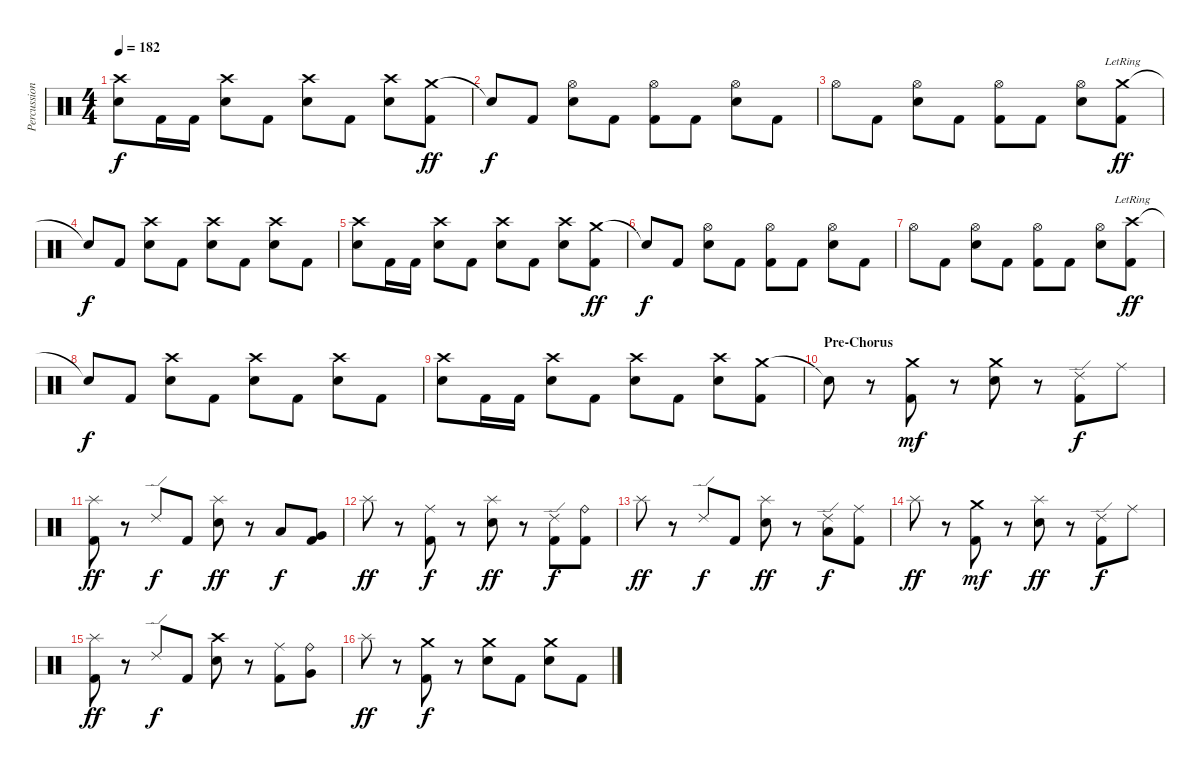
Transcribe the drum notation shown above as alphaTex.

\track ("Percussions" "Percussion") {instrument percussion}
\staff {score}
\articulation defaults
\ts (4 4)
\tempo 182
\clef neutral
\ks c
("Crash high (hit)" "Electric Snare (hit)").8{dy f} "Kick (hit) 2".16 "Kick (hit) 2".16 ("Crash high (hit)" "Electric Snare (hit)").8 "Kick (hit) 2".8 ("Crash high (hit)" "Electric Snare (hit)").8 "Kick (hit) 2".8 ("Crash high (hit)" "Electric Snare (hit)").8 ("Crash medium (hit)" "Kick (hit) 2").8{dy ff} |
"Snare (hit)"{t}.8{dy f} "Kick (hit) 2".8 ("Hi-Hat (open)" "Electric Snare (hit)").8 "Kick (hit) 2".8 ("Hi-Hat (open)" "Kick (hit) 2").8 "Kick (hit) 2".8 ("Hi-Hat (open)" "Electric Snare (hit)").8 "Kick (hit) 2".8 |
"Hi-Hat (open)".8 "Kick (hit) 2".8 ("Hi-Hat (open)" "Electric Snare (hit)").8 "Kick (hit) 2".8 ("Hi-Hat (open)" "Kick (hit) 2").8 "Kick (hit) 2".8 ("Hi-Hat (open)" "Electric Snare (hit)").8 ("Crash medium (hit)"{lr} "Kick (hit) 2").8{dy ff} |
"Snare (hit)"{t}.8{dy f} "Kick (hit) 2".8 ("Crash high (hit)" "Electric Snare (hit)").8 "Kick (hit) 2".8 ("Crash high (hit)" "Electric Snare (hit)").8 "Kick (hit) 2".8 ("Crash high (hit)" "Electric Snare (hit)").8 "Kick (hit) 2".8 |
("Crash high (hit)" "Electric Snare (hit)").8 "Kick (hit) 2".16 "Kick (hit) 2".16 ("Crash high (hit)" "Electric Snare (hit)").8 "Kick (hit) 2".8 ("Crash high (hit)" "Electric Snare (hit)").8 "Kick (hit) 2".8 ("Crash high (hit)" "Electric Snare (hit)").8 ("Crash medium (hit)" "Kick (hit) 2").8{dy ff} |
"Snare (hit)"{t}.8{dy f} "Kick (hit) 2".8 ("Hi-Hat (open)" "Electric Snare (hit)").8 "Kick (hit) 2".8 ("Hi-Hat (open)" "Kick (hit) 2").8 "Kick (hit) 2".8 ("Hi-Hat (open)" "Electric Snare (hit)").8 "Kick (hit) 2".8 |
"Hi-Hat (open)".8 "Kick (hit) 2".8 ("Hi-Hat (open)" "Electric Snare (hit)").8 "Kick (hit) 2".8 ("Hi-Hat (open)" "Kick (hit) 2").8 "Kick (hit) 2".8 ("Hi-Hat (open)" "Electric Snare (hit)").8 ("Crash high (hit)"{lr} "Kick (hit) 2").8{dy ff} |
"Snare (hit)"{t}.8{dy f} "Kick (hit) 2".8 ("Crash high (hit)" "Electric Snare (hit)").8 "Kick (hit) 2".8 ("Crash high (hit)" "Electric Snare (hit)").8 "Kick (hit) 2".8 ("Crash high (hit)" "Electric Snare (hit)").8 "Kick (hit) 2".8 |
("Crash high (hit)" "Electric Snare (hit)").8 "Kick (hit) 2".16 "Kick (hit) 2".16 ("Crash high (hit)" "Electric Snare (hit)").8 "Kick (hit) 2".8 ("Crash high (hit)" "Electric Snare (hit)").8 "Kick (hit) 2".8 ("Crash high (hit)" "Electric Snare (hit)").8 ("Crash medium (hit)" "Kick (hit) 2").8 |
\section ("" "Pre-Chorus")
"Snare (hit)"{t}.8 r.8 ("Crash medium (hit)" "Kick (hit) 2").8{dy mf} r.8 ("Crash medium (hit)" "Electric Snare (hit)").8 r.8 ("Ride (edge) 2" "Kick (hit) 2").8{dy f} "Ride (middle)".8 |
("Splash (hit)" "Kick (hit) 2").8{dy ff} r.8 "Ride (edge) 2".8{dy f} "Kick (hit) 2".8 ("Splash (hit)" "Electric Snare (hit)").8{dy ff} r.8 "Low Tom (hit)".8{dy f} ("Very Low Tom (hit)" "Kick (hit) 2").8 |
"Splash (hit)".8{dy ff} r.8 ("Ride (middle)" "Kick (hit) 2").8{dy f} r.8 ("Splash (hit)" "Electric Snare (hit)").8{dy ff} r.8 ("Ride (edge) 2" "Kick (hit) 2").8{dy f} ("Ride (bell)" "Kick (hit) 2").8 |
"Splash (hit)".8{dy ff} r.8 "Ride (edge) 2".8{dy f} "Kick (hit) 2".8 ("Splash (hit)" "Electric Snare (hit)").8{dy ff} r.8 ("Ride (edge) 2" "Low Tom (hit)").8{dy f} ("Ride (middle)" "Kick (hit) 2").8 |
"Splash (hit)".8{dy ff} r.8 ("Crash medium (hit)" "Kick (hit) 2").8{dy mf} r.8 ("Splash (hit)" "Electric Snare (hit)").8{dy ff} r.8 ("Ride (edge) 2" "Kick (hit) 2").8{dy f} "Ride (middle)".8 |
("Splash (hit)" "Kick (hit) 2").8{dy ff} r.8 "Ride (edge) 2".8{dy f} "Kick (hit) 2".8 ("Crash high (hit)" "Electric Snare (hit)").8 r.8 ("Ride (middle)" "Kick (hit) 2").8 ("Ride (bell)" "Very Low Tom (hit)").8 |
"Splash (hit)".8{dy ff} r.8 ("Crash medium (hit)" "Kick (hit) 2").8{dy f} r.8 ("Crash medium (hit)" "Electric Snare (hit)").8 "Kick (hit) 2".8 ("Crash medium (hit)" "Electric Snare (hit)").8 "Kick (hit) 2".8
